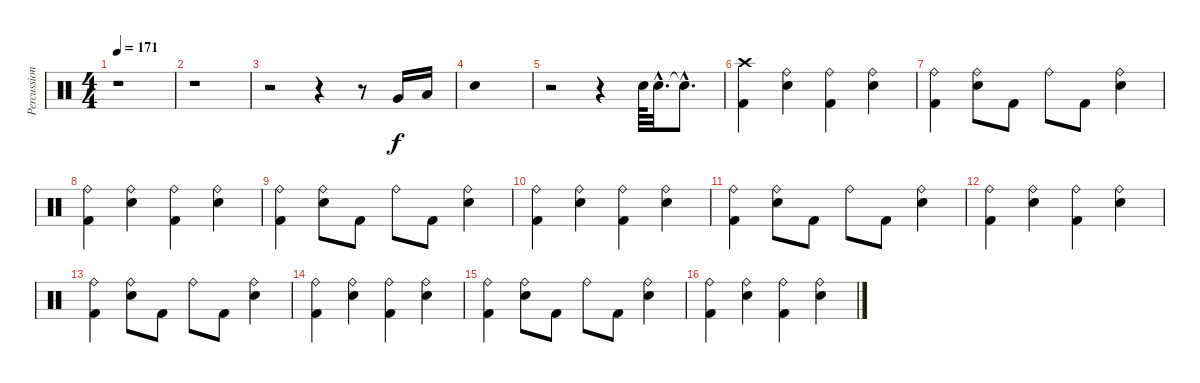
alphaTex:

\track ("Percussion" "Percussion") {instrument percussion}
\staff {score}
\articulation defaults
\ts (4 4)
\tempo 171
\clef neutral
\ks c
r.1{dy f} |
r.1 |
r.2 r.4 r.8 "Very Low Tom (hit)".16 "Low Floor Tom (hit)".16 |
"Metronome (bell)".1 |
r.2 r.4 "Metronome (bell)".64 "Metronome (bell)"{hac}.32{d} "Snare (hit)"{hac t}.8{d} |
("Crash high (hit)" "Kick (hit) 2").4 ("Ride (bell)" "Metronome (bell)").4 ("Ride (bell)" "Kick (hit) 2").4 ("Ride (bell)" "Metronome (bell)").4 |
("Ride (bell)" "Kick (hit) 2").4 ("Ride (bell)" "Metronome (bell)").8 "Kick (hit) 2".8 "Ride (bell)".8 "Kick (hit) 2".8 ("Ride (bell)" "Metronome (bell)").4 |
("Ride (bell)" "Kick (hit) 2").4 ("Ride (bell)" "Metronome (bell)").4 ("Ride (bell)" "Kick (hit) 2").4 ("Ride (bell)" "Metronome (bell)").4 |
("Ride (bell)" "Kick (hit) 2").4 ("Ride (bell)" "Metronome (bell)").8 "Kick (hit) 2".8 "Ride (bell)".8 "Kick (hit) 2".8 ("Ride (bell)" "Metronome (bell)").4 |
("Ride (bell)" "Kick (hit) 2").4 ("Ride (bell)" "Metronome (bell)").4 ("Ride (bell)" "Kick (hit) 2").4 ("Ride (bell)" "Metronome (bell)").4 |
("Ride (bell)" "Kick (hit) 2").4 ("Ride (bell)" "Metronome (bell)").8 "Kick (hit) 2".8 "Ride (bell)".8 "Kick (hit) 2".8 ("Ride (bell)" "Metronome (bell)").4 |
("Ride (bell)" "Kick (hit) 2").4 ("Ride (bell)" "Metronome (bell)").4 ("Ride (bell)" "Kick (hit) 2").4 ("Ride (bell)" "Metronome (bell)").4 |
("Ride (bell)" "Kick (hit) 2").4 ("Ride (bell)" "Metronome (bell)").8 "Kick (hit) 2".8 "Ride (bell)".8 "Kick (hit) 2".8 ("Ride (bell)" "Metronome (bell)").4 |
("Ride (bell)" "Kick (hit) 2").4 ("Ride (bell)" "Metronome (bell)").4 ("Ride (bell)" "Kick (hit) 2").4 ("Ride (bell)" "Metronome (bell)").4 |
("Ride (bell)" "Kick (hit) 2").4 ("Ride (bell)" "Metronome (bell)").8 "Kick (hit) 2".8 "Ride (bell)".8 "Kick (hit) 2".8 ("Ride (bell)" "Metronome (bell)").4 |
("Ride (bell)" "Kick (hit) 2").4 ("Ride (bell)" "Metronome (bell)").4 ("Ride (bell)" "Kick (hit) 2").4 ("Ride (bell)" "Metronome (bell)").4
